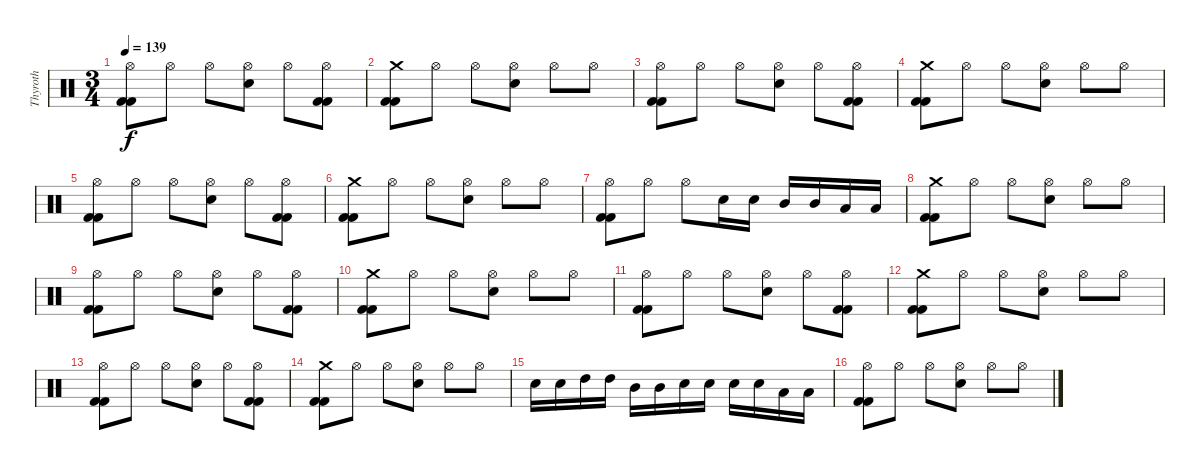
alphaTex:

\track ("Thyroth" "Thyroth") {instrument percussion}
\staff {score}
\articulation defaults
\ts (3 4)
\tempo 139
\clef neutral
\ks c
("Kick (hit) 2" "Kick (hit) 2" "Hi-Hat (open)").8{dy f} "Hi-Hat (open)".8 "Hi-Hat (open)".8 ("Snare (hit) 2" "Hi-Hat (open)").8 "Hi-Hat (open)".8 ("Kick (hit) 2" "Kick (hit) 2" "Hi-Hat (open)").8 |
("Kick (hit) 2" "Kick (hit) 2" "Crash medium (hit)").8 "Hi-Hat (open)".8 "Hi-Hat (open)".8 ("Snare (hit) 2" "Hi-Hat (open)").8 "Hi-Hat (open)".8 "Hi-Hat (open)".8 |
("Kick (hit) 2" "Kick (hit) 2" "Hi-Hat (open)").8 "Hi-Hat (open)".8 "Hi-Hat (open)".8 ("Snare (hit) 2" "Hi-Hat (open)").8 "Hi-Hat (open)".8 ("Kick (hit) 2" "Kick (hit) 2" "Hi-Hat (open)").8 |
("Kick (hit) 2" "Kick (hit) 2" "Crash medium (hit)").8 "Hi-Hat (open)".8 "Hi-Hat (open)".8 ("Snare (hit) 2" "Hi-Hat (open)").8 "Hi-Hat (open)".8 "Hi-Hat (open)".8 |
("Kick (hit) 2" "Kick (hit) 2" "Hi-Hat (open)").8 "Hi-Hat (open)".8 "Hi-Hat (open)".8 ("Snare (hit) 2" "Hi-Hat (open)").8 "Hi-Hat (open)".8 ("Kick (hit) 2" "Kick (hit) 2" "Hi-Hat (open)").8 |
("Kick (hit) 2" "Kick (hit) 2" "Crash medium (hit)").8 "Hi-Hat (open)".8 "Hi-Hat (open)".8 ("Snare (hit) 2" "Hi-Hat (open)").8 "Hi-Hat (open)".8 "Hi-Hat (open)".8 |
("Kick (hit) 2" "Kick (hit) 2" "Hi-Hat (open)").8 "Hi-Hat (open)".8 "Hi-Hat (open)".8 "Snare (hit) 2".16 "Snare (hit) 2".16 "Mid Tom (hit)".16 "Mid Tom (hit)".16 "Low Tom (hit)".16 "Low Tom (hit)".16 |
("Kick (hit) 2" "Kick (hit) 2" "Crash medium (hit)").8 "Hi-Hat (open)".8 "Hi-Hat (open)".8 ("Snare (hit) 2" "Hi-Hat (open)").8 "Hi-Hat (open)".8 "Hi-Hat (open)".8 |
("Kick (hit) 2" "Kick (hit) 2" "Hi-Hat (open)").8 "Hi-Hat (open)".8 "Hi-Hat (open)".8 ("Snare (hit) 2" "Hi-Hat (open)").8 "Hi-Hat (open)".8 ("Kick (hit) 2" "Kick (hit) 2" "Hi-Hat (open)").8 |
("Kick (hit) 2" "Kick (hit) 2" "Crash medium (hit)").8 "Hi-Hat (open)".8 "Hi-Hat (open)".8 ("Snare (hit) 2" "Hi-Hat (open)").8 "Hi-Hat (open)".8 "Hi-Hat (open)".8 |
("Kick (hit) 2" "Kick (hit) 2" "Hi-Hat (open)").8 "Hi-Hat (open)".8 "Hi-Hat (open)".8 ("Snare (hit) 2" "Hi-Hat (open)").8 "Hi-Hat (open)".8 ("Kick (hit) 2" "Kick (hit) 2" "Hi-Hat (open)").8 |
("Kick (hit) 2" "Kick (hit) 2" "Crash medium (hit)").8 "Hi-Hat (open)".8 "Hi-Hat (open)".8 ("Snare (hit) 2" "Hi-Hat (open)").8 "Hi-Hat (open)".8 "Hi-Hat (open)".8 |
("Kick (hit) 2" "Kick (hit) 2" "Hi-Hat (open)").8 "Hi-Hat (open)".8 "Hi-Hat (open)".8 ("Snare (hit) 2" "Hi-Hat (open)").8 "Hi-Hat (open)".8 ("Kick (hit) 2" "Kick (hit) 2" "Hi-Hat (open)").8 |
("Kick (hit) 2" "Kick (hit) 2" "Crash medium (hit)").8 "Hi-Hat (open)".8 "Hi-Hat (open)".8 ("Snare (hit) 2" "Hi-Hat (open)").8 "Hi-Hat (open)".8 "Hi-Hat (open)".8 |
"Snare (hit) 2".16 "Snare (hit) 2".16 "High Tom (hit)".16 "High Tom (hit)".16 "Mid Tom (hit)".16 "Mid Tom (hit)".16 "Snare (hit) 2".16 "Snare (hit) 2".16 "Snare (hit) 2".16 "Snare (hit) 2".16 "Low Tom (hit)".16 "Low Tom (hit)".16 |
("Kick (hit) 2" "Kick (hit) 2" "Hi-Hat (open)").8 "Hi-Hat (open)".8 "Hi-Hat (open)".8 ("Snare (hit) 2" "Hi-Hat (open)").8 "Hi-Hat (open)".8 "Hi-Hat (open)".8
